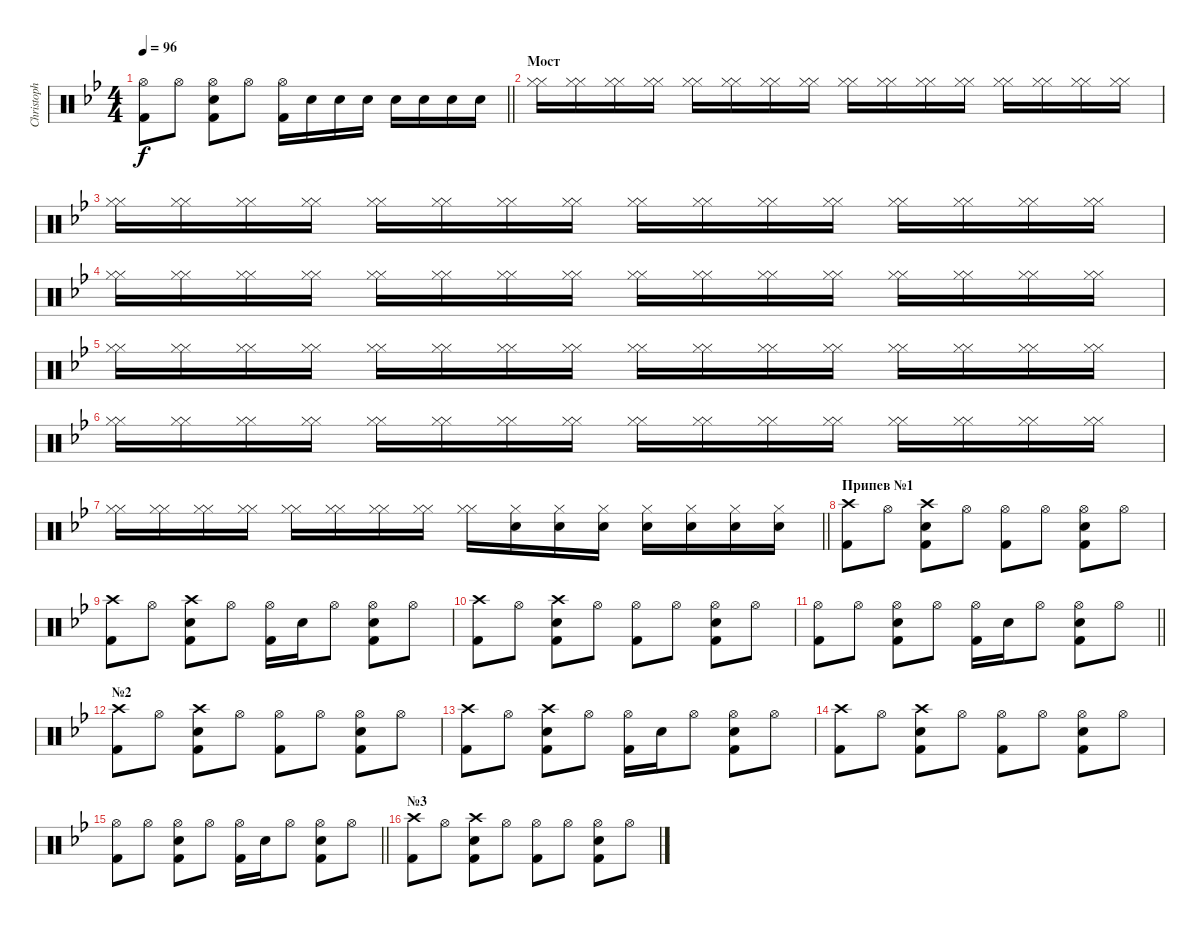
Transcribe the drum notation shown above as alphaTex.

\track ("Christoph Doom Schneider" "Christoph ") {instrument percussion}
\staff {score}
\articulation defaults
\ts (4 4)
\tempo 96
\clef neutral
\barLineRight lightlight
\ks bb
("Hi-Hat (open)" "Kick (hit) 2").8{dy f} "Hi-Hat (open)".8 ("Snare (hit) 2" "Hi-Hat (open)" "Kick (hit) 2").8 "Hi-Hat (open)".8 ("Hi-Hat (open)" "Kick (hit) 2").16 "Snare (hit) 2".16 "Snare (hit) 2".16 "Snare (hit) 2".16 "Snare (hit) 2".16 "Snare (hit) 2".16 "Snare (hit) 2".16 "Snare (hit) 2".16 |
\section ("" "Мост")
("Hi-Hat (closed)" "Hi-Hat (closed)").16 ("Hi-Hat (closed)" "Hi-Hat (closed)").16{volume 8 balance 16} ("Hi-Hat (closed)" "Hi-Hat (closed)").16{volume 16 balance 8} ("Hi-Hat (closed)" "Hi-Hat (closed)").16 ("Hi-Hat (closed)" "Hi-Hat (closed)").16 ("Hi-Hat (closed)" "Hi-Hat (closed)").16 ("Hi-Hat (closed)" "Hi-Hat (closed)").16 ("Hi-Hat (closed)" "Hi-Hat (closed)").16 ("Hi-Hat (closed)" "Hi-Hat (closed)").16 ("Hi-Hat (closed)" "Hi-Hat (closed)").16 ("Hi-Hat (closed)" "Hi-Hat (closed)").16 ("Hi-Hat (closed)" "Hi-Hat (closed)").16{volume 12 balance 0} ("Hi-Hat (closed)" "Hi-Hat (closed)").16 ("Hi-Hat (closed)" "Hi-Hat (closed)").16 ("Hi-Hat (closed)" "Hi-Hat (closed)").16 ("Hi-Hat (closed)" "Hi-Hat (closed)").16 |
("Hi-Hat (closed)" "Hi-Hat (closed)").16 ("Hi-Hat (closed)" "Hi-Hat (closed)").16 ("Hi-Hat (closed)" "Hi-Hat (closed)").16{volume 16 balance 8} ("Hi-Hat (closed)" "Hi-Hat (closed)").16 ("Hi-Hat (closed)" "Hi-Hat (closed)").16 ("Hi-Hat (closed)" "Hi-Hat (closed)").16 ("Hi-Hat (closed)" "Hi-Hat (closed)").16 ("Hi-Hat (closed)" "Hi-Hat (closed)").16 ("Hi-Hat (closed)" "Hi-Hat (closed)").16 ("Hi-Hat (closed)" "Hi-Hat (closed)").16 ("Hi-Hat (closed)" "Hi-Hat (closed)").16 ("Hi-Hat (closed)" "Hi-Hat (closed)").16{volume 8 balance 16} ("Hi-Hat (closed)" "Hi-Hat (closed)").16 ("Hi-Hat (closed)" "Hi-Hat (closed)").16 ("Hi-Hat (closed)" "Hi-Hat (closed)").16 ("Hi-Hat (closed)" "Hi-Hat (closed)").16 |
("Hi-Hat (closed)" "Hi-Hat (closed)").16 ("Hi-Hat (closed)" "Hi-Hat (closed)").16 ("Hi-Hat (closed)" "Hi-Hat (closed)").16{volume 16 balance 8} ("Hi-Hat (closed)" "Hi-Hat (closed)").16 ("Hi-Hat (closed)" "Hi-Hat (closed)").16 ("Hi-Hat (closed)" "Hi-Hat (closed)").16 ("Hi-Hat (closed)" "Hi-Hat (closed)").16 ("Hi-Hat (closed)" "Hi-Hat (closed)").16 ("Hi-Hat (closed)" "Hi-Hat (closed)").16 ("Hi-Hat (closed)" "Hi-Hat (closed)").16 ("Hi-Hat (closed)" "Hi-Hat (closed)").16 ("Hi-Hat (closed)" "Hi-Hat (closed)").16{volume 12 balance 0} ("Hi-Hat (closed)" "Hi-Hat (closed)").16 ("Hi-Hat (closed)" "Hi-Hat (closed)").16 ("Hi-Hat (closed)" "Hi-Hat (closed)").16 ("Hi-Hat (closed)" "Hi-Hat (closed)").16 |
("Hi-Hat (closed)" "Hi-Hat (closed)").16 ("Hi-Hat (closed)" "Hi-Hat (closed)").16 ("Hi-Hat (closed)" "Hi-Hat (closed)").16{volume 16 balance 8} ("Hi-Hat (closed)" "Hi-Hat (closed)").16 ("Hi-Hat (closed)" "Hi-Hat (closed)").16 ("Hi-Hat (closed)" "Hi-Hat (closed)").16 ("Hi-Hat (closed)" "Hi-Hat (closed)").16 ("Hi-Hat (closed)" "Hi-Hat (closed)").16 ("Hi-Hat (closed)" "Hi-Hat (closed)").16 ("Hi-Hat (closed)" "Hi-Hat (closed)").16 ("Hi-Hat (closed)" "Hi-Hat (closed)").16 ("Hi-Hat (closed)" "Hi-Hat (closed)").16{volume 8 balance 16} ("Hi-Hat (closed)" "Hi-Hat (closed)").16 ("Hi-Hat (closed)" "Hi-Hat (closed)").16 ("Hi-Hat (closed)" "Hi-Hat (closed)").16 ("Hi-Hat (closed)" "Hi-Hat (closed)").16 |
("Hi-Hat (closed)" "Hi-Hat (closed)").16 ("Hi-Hat (closed)" "Hi-Hat (closed)").16 ("Hi-Hat (closed)" "Hi-Hat (closed)").16{volume 16 balance 8} ("Hi-Hat (closed)" "Hi-Hat (closed)").16 ("Hi-Hat (closed)" "Hi-Hat (closed)").16 ("Hi-Hat (closed)" "Hi-Hat (closed)").16 ("Hi-Hat (closed)" "Hi-Hat (closed)").16 ("Hi-Hat (closed)" "Hi-Hat (closed)").16 ("Hi-Hat (closed)" "Hi-Hat (closed)").16 ("Hi-Hat (closed)" "Hi-Hat (closed)").16 ("Hi-Hat (closed)" "Hi-Hat (closed)").16 ("Hi-Hat (closed)" "Hi-Hat (closed)").16{volume 12 balance 0} ("Hi-Hat (closed)" "Hi-Hat (closed)").16 ("Hi-Hat (closed)" "Hi-Hat (closed)").16 ("Hi-Hat (closed)" "Hi-Hat (closed)").16 ("Hi-Hat (closed)" "Hi-Hat (closed)").16 |
\barLineRight lightlight
("Hi-Hat (closed)" "Hi-Hat (closed)").16{volume 16 balance 8} ("Hi-Hat (closed)" "Hi-Hat (closed)").16 ("Hi-Hat (closed)" "Hi-Hat (closed)").16 ("Hi-Hat (closed)" "Hi-Hat (closed)").16 ("Hi-Hat (closed)" "Hi-Hat (closed)").16 ("Hi-Hat (closed)" "Hi-Hat (closed)").16 ("Hi-Hat (closed)" "Hi-Hat (closed)").16 ("Hi-Hat (closed)" "Hi-Hat (closed)").16 ("Hi-Hat (closed)" "Hi-Hat (closed)").16 ("Hi-Hat (closed)" "Snare (hit) 2").16 ("Hi-Hat (closed)" "Snare (hit) 2").16 ("Hi-Hat (closed)" "Snare (hit) 2").16 ("Hi-Hat (closed)" "Snare (hit) 2").16 ("Hi-Hat (closed)" "Snare (hit) 2").16 ("Hi-Hat (closed)" "Snare (hit) 2").16 ("Hi-Hat (closed)" "Snare (hit) 2").16 |
\section ("" "Припев №1")
("Crash high (hit)" "Kick (hit) 2").8 "Hi-Hat (open)".8 ("Snare (hit) 2" "Kick (hit) 2" "Crash high (hit)").8 "Hi-Hat (open)".8 ("Hi-Hat (open)" "Kick (hit) 2").8 "Hi-Hat (open)".8 ("Snare (hit) 2" "Hi-Hat (open)" "Kick (hit) 2").8 "Hi-Hat (open)".8 |
("Crash high (hit)" "Kick (hit) 2").8 "Hi-Hat (open)".8 ("Snare (hit) 2" "Kick (hit) 2" "Crash high (hit)").8 "Hi-Hat (open)".8 ("Hi-Hat (open)" "Kick (hit) 2").16 "Snare (hit) 2".16 "Hi-Hat (open)".8 ("Snare (hit) 2" "Hi-Hat (open)" "Kick (hit) 2").8 "Hi-Hat (open)".8 |
("Crash high (hit)" "Kick (hit) 2").8 "Hi-Hat (open)".8 ("Snare (hit) 2" "Kick (hit) 2" "Crash high (hit)").8 "Hi-Hat (open)".8 ("Hi-Hat (open)" "Kick (hit) 2").8 "Hi-Hat (open)".8 ("Snare (hit) 2" "Hi-Hat (open)" "Kick (hit) 2").8 "Hi-Hat (open)".8 |
\barLineRight lightlight
("Hi-Hat (open)" "Kick (hit) 2").8 "Hi-Hat (open)".8 ("Snare (hit) 2" "Hi-Hat (open)" "Kick (hit) 2").8 "Hi-Hat (open)".8 ("Hi-Hat (open)" "Kick (hit) 2").16 "Snare (hit) 2".16 "Hi-Hat (open)".8 ("Snare (hit) 2" "Hi-Hat (open)" "Kick (hit) 2").8 "Hi-Hat (open)".8 |
\section ("" "№2")
("Crash high (hit)" "Kick (hit) 2").8 "Hi-Hat (open)".8 ("Snare (hit) 2" "Kick (hit) 2" "Crash high (hit)").8 "Hi-Hat (open)".8 ("Hi-Hat (open)" "Kick (hit) 2").8 "Hi-Hat (open)".8 ("Snare (hit) 2" "Hi-Hat (open)" "Kick (hit) 2").8 "Hi-Hat (open)".8 |
("Crash high (hit)" "Kick (hit) 2").8 "Hi-Hat (open)".8 ("Snare (hit) 2" "Kick (hit) 2" "Crash high (hit)").8 "Hi-Hat (open)".8 ("Hi-Hat (open)" "Kick (hit) 2").16 "Snare (hit) 2".16 "Hi-Hat (open)".8 ("Snare (hit) 2" "Hi-Hat (open)" "Kick (hit) 2").8 "Hi-Hat (open)".8 |
("Crash high (hit)" "Kick (hit) 2").8 "Hi-Hat (open)".8 ("Snare (hit) 2" "Kick (hit) 2" "Crash high (hit)").8 "Hi-Hat (open)".8 ("Hi-Hat (open)" "Kick (hit) 2").8 "Hi-Hat (open)".8 ("Snare (hit) 2" "Hi-Hat (open)" "Kick (hit) 2").8 "Hi-Hat (open)".8 |
\barLineRight lightlight
("Hi-Hat (open)" "Kick (hit) 2").8 "Hi-Hat (open)".8 ("Snare (hit) 2" "Hi-Hat (open)" "Kick (hit) 2").8 "Hi-Hat (open)".8 ("Hi-Hat (open)" "Kick (hit) 2").16 "Snare (hit) 2".16 "Hi-Hat (open)".8 ("Snare (hit) 2" "Hi-Hat (open)" "Kick (hit) 2").8 "Hi-Hat (open)".8 |
\section ("" "№3")
("Crash high (hit)" "Kick (hit) 2").8 "Hi-Hat (open)".8 ("Snare (hit) 2" "Kick (hit) 2" "Crash high (hit)").8 "Hi-Hat (open)".8 ("Hi-Hat (open)" "Kick (hit) 2").8 "Hi-Hat (open)".8 ("Snare (hit) 2" "Hi-Hat (open)" "Kick (hit) 2").8 "Hi-Hat (open)".8
